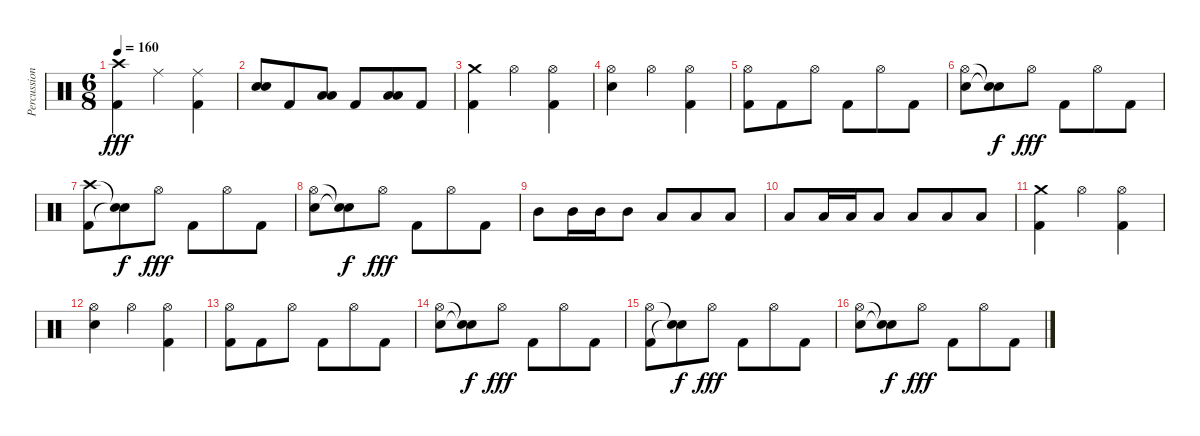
\track ("Percussion" "Percussion") {instrument percussion}
\staff {score}
\articulation defaults
\ts (6 8)
\tempo 160
\clef neutral
\ks c
("Crash high (hit)" "Kick (hit) 2").4{dy fff} "Ride (middle)".4 ("Ride (middle)" "Kick (hit) 2").4 |
("Snare (hit) 2" "Snare (hit) 2").8 "Kick (hit) 2".8 ("Low Tom (hit)" "Low Tom (hit)").8 "Kick (hit) 2".8 ("Low Floor Tom (hit)" "Low Floor Tom (hit)").8 "Kick (hit) 2".8 |
("Crash medium (hit)" "Kick (hit) 2").4 "Hi-Hat (open)".4 ("Hi-Hat (open)" "Kick (hit) 2").4 |
("Hi-Hat (open)" "Snare (hit) 2").4 "Hi-Hat (open)".4 ("Hi-Hat (open)" "Kick (hit) 2").4 |
("Hi-Hat (open)" "Kick (hit) 2").8 "Kick (hit) 2".8 "Hi-Hat (open)".8 "Kick (hit) 2".8 "Hi-Hat (open)".8 "Kick (hit) 2".8 |
("Hi-Hat (open)" "Snare (hit) 2").8 ("Snare (hit)"{t} "Snare (hit)"{t}).8{dy f} "Hi-Hat (open)".8{dy fff} "Kick (hit) 2".8 "Hi-Hat (open)".8 "Kick (hit) 2".8 |
("Crash high (hit)" "Kick (hit) 2").8 ("Snare (hit)"{t} "Snare (hit)"{t}).8{dy f} "Hi-Hat (open)".8{dy fff} "Kick (hit) 2".8 "Hi-Hat (open)".8 "Kick (hit) 2".8 |
("Hi-Hat (open)" "Snare (hit) 2").8 ("Snare (hit)"{t} "Snare (hit)"{t}).8{dy f} "Hi-Hat (open)".8{dy fff} "Kick (hit) 2".8 "Hi-Hat (open)".8 "Kick (hit) 2".8 |
"Mid Tom (hit)".8 "Mid Tom (hit)".16 "Mid Tom (hit)".16 "Mid Tom (hit)".8 "Low Tom (hit)".8 "Low Tom (hit)".8 "Low Tom (hit)".8 |
"Low Tom (hit)".8 "Low Tom (hit)".16 "Low Tom (hit)".16 "Low Tom (hit)".8 "Low Floor Tom (hit)".8 "Low Floor Tom (hit)".8 "Low Floor Tom (hit)".8 |
("Crash medium (hit)" "Kick (hit) 2").4 "Hi-Hat (open)".4 ("Hi-Hat (open)" "Kick (hit) 2").4 |
("Hi-Hat (open)" "Snare (hit) 2").4 "Hi-Hat (open)".4 ("Hi-Hat (open)" "Kick (hit) 2").4 |
("Hi-Hat (open)" "Kick (hit) 2").8 "Kick (hit) 2".8 "Hi-Hat (open)".8 "Kick (hit) 2".8 "Hi-Hat (open)".8 "Kick (hit) 2".8 |
("Hi-Hat (open)" "Snare (hit) 2").8 ("Snare (hit)"{t} "Snare (hit)"{t}).8{dy f} "Hi-Hat (open)".8{dy fff} "Kick (hit) 2".8 "Hi-Hat (open)".8 "Kick (hit) 2".8 |
("Hi-Hat (open)" "Kick (hit) 2").8 ("Snare (hit)"{t} "Snare (hit)"{t}).8{dy f} "Hi-Hat (open)".8{dy fff} "Kick (hit) 2".8 "Hi-Hat (open)".8 "Kick (hit) 2".8 |
("Hi-Hat (open)" "Snare (hit) 2").8 ("Snare (hit)"{t} "Snare (hit)"{t}).8{dy f} "Hi-Hat (open)".8{dy fff} "Kick (hit) 2".8 "Hi-Hat (open)".8 "Kick (hit) 2".8
